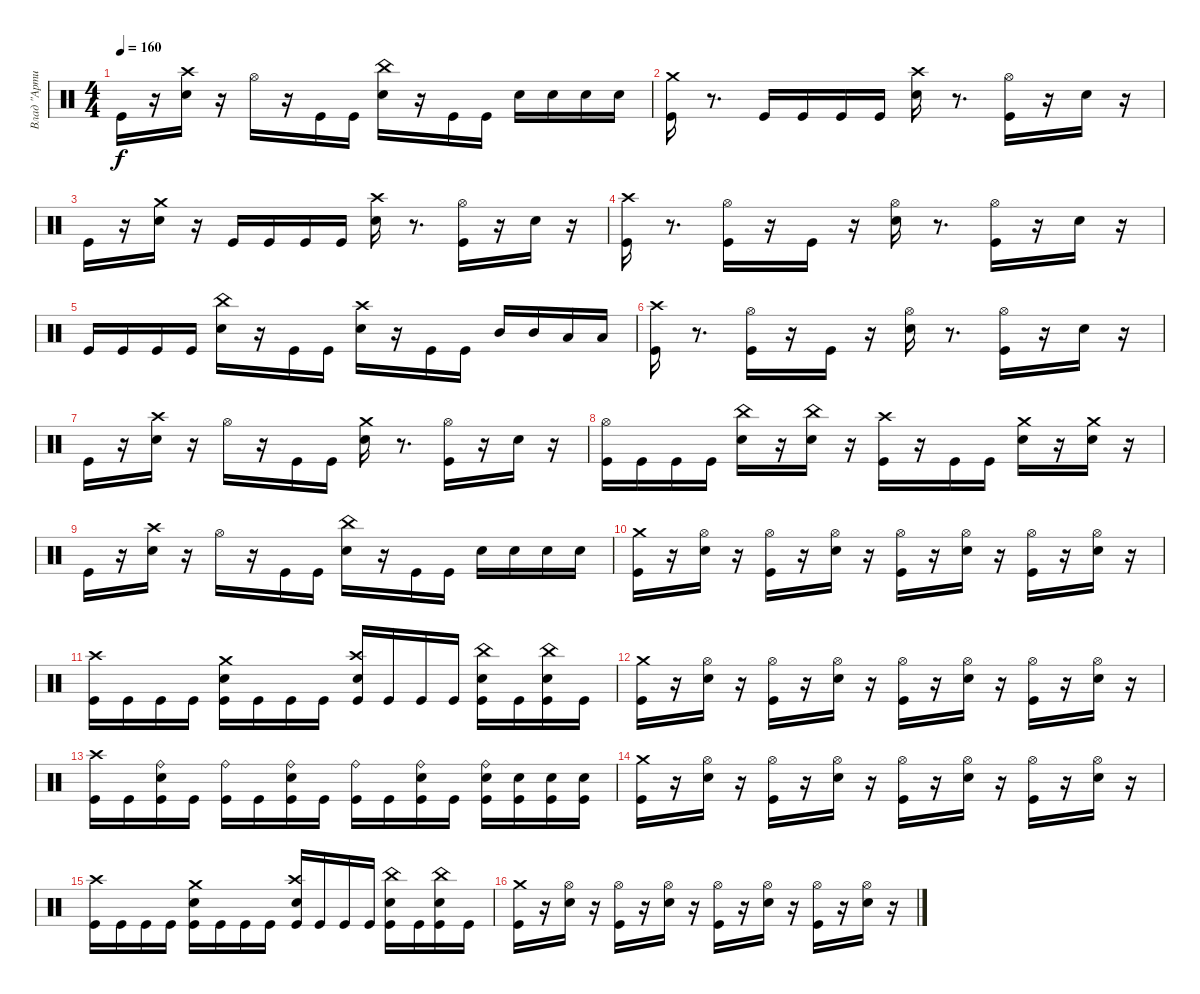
\track ("Влад \"Артист\"" "Влад \"Арти") {instrument percussion}
\staff {score}
\articulation defaults
\ts (4 4)
\tempo 160
\clef neutral
\ks c "Kick (hit)".16{dy f}
r.16 ("Crash high (hit)" "Snare (hit) 2").16 r.16 "Hi-Hat (open)".16 r.16 "Kick (hit)".16 "Kick (hit)".16 ("China (hit)" "Snare (hit) 2").16 r.16 "Kick (hit)".16 "Kick (hit)".16 "Snare (hit) 2".16 "Snare (hit) 2".16 "Snare (hit) 2".16 "Snare (hit) 2".16 |
("Crash medium (hit)" "Kick (hit)").16 r.8{d} "Kick (hit)".16 "Kick (hit)".16 "Kick (hit)".16 "Kick (hit)".16 ("Snare (hit) 2" "Crash high (hit)").16 r.8{d} ("Kick (hit)" "Hi-Hat (open)").16 r.16 "Snare (hit) 2".16 r.16 |
"Kick (hit)".16 r.16 ("Snare (hit) 2" "Crash medium (hit)").16 r.16 "Kick (hit)".16 "Kick (hit)".16 "Kick (hit)".16 "Kick (hit)".16 ("Crash high (hit)" "Snare (hit) 2").16 r.8{d} ("Kick (hit)" "Hi-Hat (open)").16 r.16 "Snare (hit) 2".16 r.16 |
("Kick (hit)" "Crash high (hit)").16 r.8{d} ("Hi-Hat (open)" "Kick (hit)").16 r.16 "Kick (hit)".16 r.16 ("Hi-Hat (open)" "Snare (hit) 2").16 r.8{d} ("Kick (hit)" "Hi-Hat (open)").16 r.16 "Snare (hit) 2".16 r.16 |
"Kick (hit)".16 "Kick (hit)".16 "Kick (hit)".16 "Kick (hit)".16 ("Snare (hit) 2" "China (hit)").16 r.16 "Kick (hit)".16 "Kick (hit)".16 ("Crash high (hit)" "Snare (hit) 2").16 r.16 "Kick (hit)".16 "Kick (hit)".16 "Mid Tom (hit)".16 "Mid Tom (hit)".16 "Low Tom (hit)".16 "Low Tom (hit)".16 |
("Crash high (hit)" "Kick (hit)").16 r.8{d} ("Hi-Hat (open)" "Kick (hit)").16 r.16 "Kick (hit)".16 r.16 ("Hi-Hat (open)" "Snare (hit) 2").16 r.8{d} ("Kick (hit)" "Hi-Hat (open)").16 r.16 "Snare (hit) 2".16 r.16 |
"Kick (hit)".16 r.16 ("Snare (hit) 2" "Crash high (hit)").16 r.16 "Hi-Hat (open)".16 r.16 "Kick (hit)".16 "Kick (hit)".16 ("Crash medium (hit)" "Snare (hit) 2").16 r.8{d} ("Kick (hit)" "Hi-Hat (open)").16 r.16 "Snare (hit) 2".16 r.16 |
("Hi-Hat (open)" "Kick (hit)").16 "Kick (hit)".16 "Kick (hit)".16 "Kick (hit)".16 ("China (hit)" "Snare (hit) 2").16 r.16 ("China (hit)" "Snare (hit) 2").16 r.16 ("Kick (hit)" "Crash high (hit)").16 r.16 "Kick (hit)".16 "Kick (hit)".16 ("Snare (hit) 2" "Crash medium (hit)").16 r.16 ("Snare (hit) 2" "Crash medium (hit)").16 r.16 |
"Kick (hit)".16 r.16 ("Crash high (hit)" "Snare (hit) 2").16 r.16 "Hi-Hat (open)".16 r.16 "Kick (hit)".16 "Kick (hit)".16 ("China (hit)" "Snare (hit) 2").16 r.16 "Kick (hit)".16 "Kick (hit)".16 "Snare (hit) 2".16 "Snare (hit) 2".16 "Snare (hit) 2".16 "Snare (hit) 2".16 |
("Crash medium (hit)" "Kick (hit)").16 r.16 ("Hi-Hat (open)" "Snare (hit) 2").16 r.16 ("Hi-Hat (open)" "Kick (hit)").16 r.16 ("Snare (hit) 2" "Hi-Hat (open)").16 r.16 ("Hi-Hat (open)" "Kick (hit)").16 r.16 ("Snare (hit) 2" "Hi-Hat (open)").16 r.16 ("Hi-Hat (open)" "Kick (hit)").16 r.16 ("Snare (hit) 2" "Hi-Hat (open)").16 r.16 |
("Crash high (hit)" "Kick (hit)").16 "Kick (hit)".16 "Kick (hit)".16 "Kick (hit)".16 ("Crash medium (hit)" "Snare (hit) 2" "Kick (hit)").16 "Kick (hit)".16 "Kick (hit)".16 "Kick (hit)".16 ("Crash high (hit)" "Snare (hit) 2" "Kick (hit)").16 "Kick (hit)".16 "Kick (hit)".16 "Kick (hit)".16 ("China (hit)" "Snare (hit) 2" "Kick (hit)").16 "Kick (hit)".16 ("China (hit)" "Kick (hit)" "Snare (hit) 2").16 "Kick (hit)".16 |
("Crash medium (hit)" "Kick (hit)").16 r.16 ("Hi-Hat (open)" "Snare (hit) 2").16 r.16 ("Hi-Hat (open)" "Kick (hit)").16 r.16 ("Snare (hit) 2" "Hi-Hat (open)").16 r.16 ("Hi-Hat (open)" "Kick (hit)").16 r.16 ("Snare (hit) 2" "Hi-Hat (open)").16 r.16 ("Hi-Hat (open)" "Kick (hit)").16 r.16 ("Snare (hit) 2" "Hi-Hat (open)").16 r.16 |
("Crash high (hit)" "Kick (hit)").16 "Kick (hit)".16 ("Kick (hit)" "Ride (bell)" "Snare (hit) 2").16 "Kick (hit)".16 ("Ride (bell)" "Kick (hit)").16 "Kick (hit)".16 ("Ride (bell)" "Kick (hit)" "Snare (hit) 2").16 "Kick (hit)".16 ("Ride (bell)" "Kick (hit)").16 "Kick (hit)".16 ("Kick (hit)" "Ride (bell)" "Snare (hit) 2").16 "Kick (hit)".16 ("Snare (hit) 2" "Ride (bell)" "Kick (hit)").16 ("Snare (hit) 2" "Kick (hit)").16 ("Snare (hit) 2" "Kick (hit)").16 ("Snare (hit) 2" "Kick (hit)").16 |
("Crash medium (hit)" "Kick (hit)").16 r.16 ("Hi-Hat (open)" "Snare (hit) 2").16 r.16 ("Hi-Hat (open)" "Kick (hit)").16 r.16 ("Snare (hit) 2" "Hi-Hat (open)").16 r.16 ("Hi-Hat (open)" "Kick (hit)").16 r.16 ("Snare (hit) 2" "Hi-Hat (open)").16 r.16 ("Hi-Hat (open)" "Kick (hit)").16 r.16 ("Snare (hit) 2" "Hi-Hat (open)").16 r.16 |
("Crash high (hit)" "Kick (hit)").16 "Kick (hit)".16 "Kick (hit)".16 "Kick (hit)".16 ("Crash medium (hit)" "Snare (hit) 2" "Kick (hit)").16 "Kick (hit)".16 "Kick (hit)".16 "Kick (hit)".16 ("Crash high (hit)" "Snare (hit) 2" "Kick (hit)").16 "Kick (hit)".16 "Kick (hit)".16 "Kick (hit)".16 ("China (hit)" "Snare (hit) 2" "Kick (hit)").16 "Kick (hit)".16 ("China (hit)" "Kick (hit)" "Snare (hit) 2").16 "Kick (hit)".16 |
("Crash medium (hit)" "Kick (hit)").16 r.16 ("Hi-Hat (open)" "Snare (hit) 2").16 r.16 ("Hi-Hat (open)" "Kick (hit)").16 r.16 ("Snare (hit) 2" "Hi-Hat (open)").16 r.16 ("Hi-Hat (open)" "Kick (hit)").16 r.16 ("Snare (hit) 2" "Hi-Hat (open)").16 r.16 ("Hi-Hat (open)" "Kick (hit)").16 r.16 ("Snare (hit) 2" "Hi-Hat (open)").16 r.16
